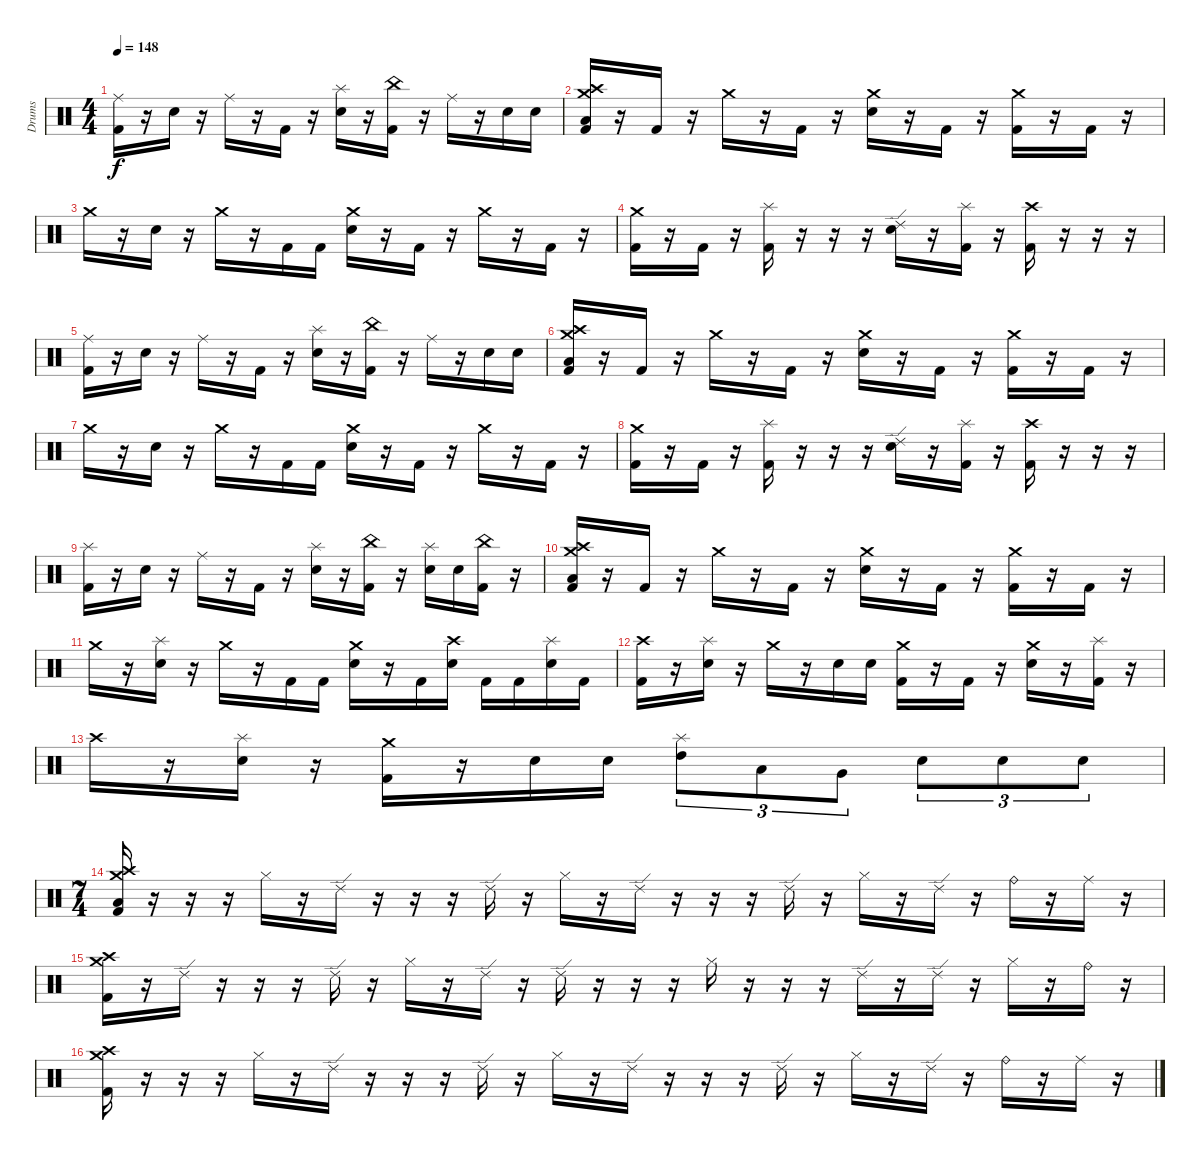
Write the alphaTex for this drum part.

\track ("Drums" "Drums") {instrument percussion}
\staff {score}
\articulation defaults
\ts (4 4)
\tempo 148
\clef neutral
\ks c
("Ride (middle)" "Kick (hit) 2").16{dy f} r.16 "Electric Snare (hit)".16 r.16 "Ride (middle)".16 r.16 "Kick (hit) 2".16 r.16 ("Splash (hit)" "Electric Snare (hit)").16 r.16 ("China (hit)" "Kick (hit) 2").16 r.16 "Ride (middle)".16 r.16 "Electric Snare (hit)".16 "Electric Snare (hit)".16 |
("Crash high (hit)" "Crash medium (hit)" "Low Floor Tom (hit)" "Kick (hit) 2").16 r.16 "Kick (hit) 2".16 r.16 "Crash medium (hit)".16 r.16 "Kick (hit) 2".16 r.16 ("Crash medium (hit)" "Electric Snare (hit)").16 r.16 "Kick (hit) 2".16 r.16 ("Crash medium (hit)" "Kick (hit) 2").16 r.16 "Kick (hit) 2".16 r.16 |
"Crash medium (hit)".16 r.16 "Electric Snare (hit)".16 r.16 "Crash medium (hit)".16 r.16 "Kick (hit) 2".16 "Kick (hit) 2".16 ("Crash medium (hit)" "Electric Snare (hit)").16 r.16 "Kick (hit) 2".16 r.16 "Crash medium (hit)".16 r.16 "Kick (hit) 2".16 r.16 |
("Crash medium (hit)" "Kick (hit) 2").16 r.16 "Kick (hit) 2".16 r.16 ("Splash (hit)" "Kick (hit) 2").16 r.16 r.16 r.16 ("Ride (edge) 2" "Electric Snare (hit)").16 r.16 ("Splash (hit)" "Kick (hit) 2").16 r.16 ("Crash high (hit)" "Kick (hit) 2").16 r.16 r.16 r.16 |
("Ride (middle)" "Kick (hit) 2").16 r.16 "Electric Snare (hit)".16 r.16 "Ride (middle)".16 r.16 "Kick (hit) 2".16 r.16 ("Splash (hit)" "Electric Snare (hit)").16 r.16 ("China (hit)" "Kick (hit) 2").16 r.16 "Ride (middle)".16 r.16 "Electric Snare (hit)".16 "Electric Snare (hit)".16 |
("Crash high (hit)" "Crash medium (hit)" "Low Floor Tom (hit)" "Kick (hit) 2").16 r.16 "Kick (hit) 2".16 r.16 "Crash medium (hit)".16 r.16 "Kick (hit) 2".16 r.16 ("Crash medium (hit)" "Electric Snare (hit)").16 r.16 "Kick (hit) 2".16 r.16 ("Crash medium (hit)" "Kick (hit) 2").16 r.16 "Kick (hit) 2".16 r.16 |
"Crash medium (hit)".16 r.16 "Electric Snare (hit)".16 r.16 "Crash medium (hit)".16 r.16 "Kick (hit) 2".16 "Kick (hit) 2".16 ("Crash medium (hit)" "Electric Snare (hit)").16 r.16 "Kick (hit) 2".16 r.16 "Crash medium (hit)".16 r.16 "Kick (hit) 2".16 r.16 |
("Crash medium (hit)" "Kick (hit) 2").16 r.16 "Kick (hit) 2".16 r.16 ("Splash (hit)" "Kick (hit) 2").16 r.16 r.16 r.16 ("Ride (edge) 2" "Electric Snare (hit)").16 r.16 ("Splash (hit)" "Kick (hit) 2").16 r.16 ("Crash high (hit)" "Kick (hit) 2").16 r.16 r.16 r.16 |
("Splash (hit)" "Kick (hit) 2").16 r.16 "Electric Snare (hit)".16 r.16 "Ride (middle)".16 r.16 "Kick (hit) 2".16 r.16 ("Splash (hit)" "Electric Snare (hit)").16 r.16 ("China (hit)" "Kick (hit) 2").16 r.16 ("Splash (hit)" "Electric Snare (hit)").16 "Electric Snare (hit)".16 ("China (hit)" "Kick (hit) 2").16 r.16 |
("Crash high (hit)" "Crash medium (hit)" "Low Floor Tom (hit)" "Kick (hit) 2").16 r.16 "Kick (hit) 2".16 r.16 "Crash medium (hit)".16 r.16 "Kick (hit) 2".16 r.16 ("Crash medium (hit)" "Electric Snare (hit)").16 r.16 "Kick (hit) 2".16 r.16 ("Crash medium (hit)" "Kick (hit) 2").16 r.16 "Kick (hit) 2".16 r.16 |
"Crash medium (hit)".16 r.16 ("Splash (hit)" "Electric Snare (hit)").16 r.16 "Crash medium (hit)".16 r.16 "Kick (hit) 2".16 "Kick (hit) 2".16 ("Crash medium (hit)" "Electric Snare (hit)").16 r.16 "Kick (hit) 2".16 ("Crash high (hit)" "Electric Snare (hit)").16 "Kick (hit) 2".16 "Kick (hit) 2".16 ("Splash (hit)" "Electric Snare (hit)").16 "Kick (hit) 2".16 |
("Crash high (hit)" "Kick (hit) 2").16 r.16 ("Splash (hit)" "Electric Snare (hit)").16 r.16 "Crash medium (hit)".16 r.16 "Electric Snare (hit)".16 "Electric Snare (hit)".16 ("Crash medium (hit)" "Kick (hit) 2").16 r.16 "Kick (hit) 2".16 r.16 ("Crash medium (hit)" "Electric Snare (hit)").16 r.16 ("Splash (hit)" "Kick (hit) 2").16 r.16 |
"Crash high (hit)".16 r.16 ("Splash (hit)" "Electric Snare (hit)").16 r.16 ("Crash medium (hit)" "Kick (hit) 2").16 r.16 "Electric Snare (hit)".16 "Electric Snare (hit)".16 ("Splash (hit)" "High Tom (hit)").8{tu (3 2)} "Low Tom (hit)".8{tu (3 2)} "Very Low Tom (hit)".8{tu (3 2)} "Electric Snare (hit)".8{tu (3 2)} "Electric Snare (hit)".8{tu (3 2)} "Electric Snare (hit)".8{tu (3 2)} |
\ts (7 4)
("Crash high (hit)" "Crash medium (hit)" "Low Floor Tom (hit)" "Kick (hit) 2").16 r.16 r.16 r.16 "Hi-Hat (closed)".16 r.16 "Ride (edge) 2".16 r.16 r.16 r.16 "Ride (edge) 2".16 r.16 "Hi-Hat (closed)".16 r.16 "Ride (edge) 2".16 r.16 r.16 r.16 "Ride (edge) 2".16 r.16 "Hi-Hat (closed)".16 r.16 "Ride (edge) 2".16 r.16 "Ride (bell)".16 r.16 "Ride (middle)".16 r.16 |
("Crash high (hit)" "Crash medium (hit)" "Kick (hit) 2").16 r.16 "Ride (edge) 2".16 r.16 r.16 r.16 "Ride (edge) 2".16 r.16 "Hi-Hat (closed)".16 r.16 "Ride (edge) 2".16 r.16 "Ride (edge) 2".16 r.16 r.16 r.16 "Hi-Hat (closed)".16 r.16 r.16 r.16 "Ride (edge) 2".16 r.16 "Ride (edge) 2".16 r.16 "Hi-Hat (closed)".16 r.16 "Ride (bell)".16 r.16 |
("Crash high (hit)" "Crash medium (hit)" "Kick (hit) 2").16 r.16 r.16 r.16 "Hi-Hat (closed)".16 r.16 "Ride (edge) 2".16 r.16 r.16 r.16 "Ride (edge) 2".16 r.16 "Hi-Hat (closed)".16 r.16 "Ride (edge) 2".16 r.16 r.16 r.16 "Ride (edge) 2".16 r.16 "Hi-Hat (closed)".16 r.16 "Ride (edge) 2".16 r.16 "Ride (bell)".16 r.16 "Ride (middle)".16 r.16
